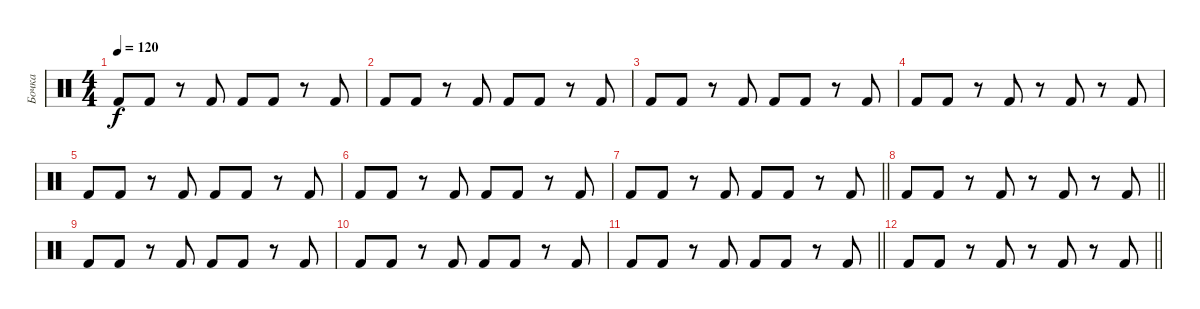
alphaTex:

\track ("Бочка" "Бочка") {instrument percussion}
\staff {score}
\articulation defaults
\ts (4 4)
\tempo 120
\clef neutral
\ks c "Kick (hit) 2".8{dy f} "Kick (hit) 2".8
r.8 "Kick (hit) 2".8 "Kick (hit) 2".8 "Kick (hit) 2".8 r.8 "Kick (hit) 2".8 |
"Kick (hit) 2".8 "Kick (hit) 2".8 r.8 "Kick (hit) 2".8 "Kick (hit) 2".8 "Kick (hit) 2".8 r.8 "Kick (hit) 2".8 |
"Kick (hit) 2".8 "Kick (hit) 2".8 r.8 "Kick (hit) 2".8 "Kick (hit) 2".8 "Kick (hit) 2".8 r.8 "Kick (hit) 2".8 |
"Kick (hit) 2".8 "Kick (hit) 2".8 r.8 "Kick (hit) 2".8 r.8 "Kick (hit) 2".8 r.8 "Kick (hit) 2".8 |
"Kick (hit) 2".8 "Kick (hit) 2".8 r.8 "Kick (hit) 2".8 "Kick (hit) 2".8 "Kick (hit) 2".8 r.8 "Kick (hit) 2".8 |
"Kick (hit) 2".8 "Kick (hit) 2".8 r.8 "Kick (hit) 2".8 "Kick (hit) 2".8 "Kick (hit) 2".8 r.8 "Kick (hit) 2".8 |
\barLineRight lightlight "Kick (hit) 2".8 "Kick (hit) 2".8
r.8 "Kick (hit) 2".8 "Kick (hit) 2".8 "Kick (hit) 2".8 r.8 "Kick (hit) 2".8 |
\barLineRight lightlight "Kick (hit) 2".8 "Kick (hit) 2".8
r.8 "Kick (hit) 2".8 r.8 "Kick (hit) 2".8 r.8 "Kick (hit) 2".8 |
"Kick (hit) 2".8 "Kick (hit) 2".8 r.8 "Kick (hit) 2".8 "Kick (hit) 2".8 "Kick (hit) 2".8 r.8 "Kick (hit) 2".8 |
"Kick (hit) 2".8 "Kick (hit) 2".8 r.8 "Kick (hit) 2".8 "Kick (hit) 2".8 "Kick (hit) 2".8 r.8 "Kick (hit) 2".8 |
\barLineRight lightlight "Kick (hit) 2".8 "Kick (hit) 2".8
r.8 "Kick (hit) 2".8 "Kick (hit) 2".8 "Kick (hit) 2".8 r.8 "Kick (hit) 2".8 |
\barLineRight lightlight "Kick (hit) 2".8 "Kick (hit) 2".8
r.8 "Kick (hit) 2".8 r.8 "Kick (hit) 2".8 r.8 "Kick (hit) 2".8
